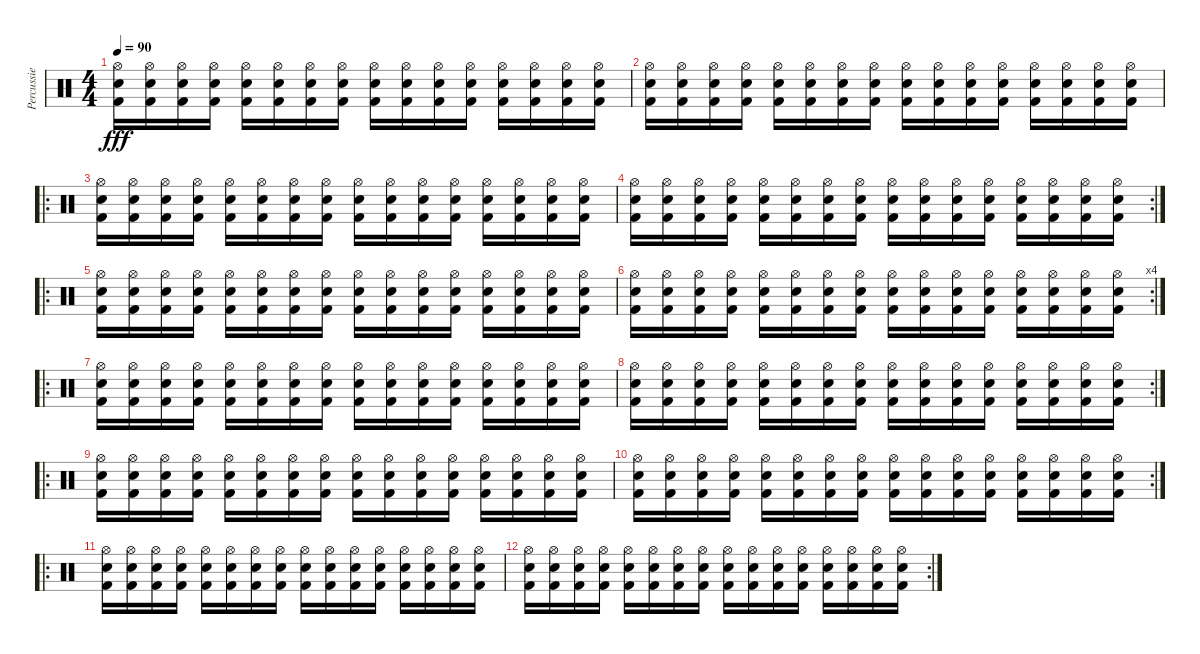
\track ("Percussie" "Percussie") {instrument percussion}
\staff {score}
\articulation defaults
\ts (4 4)
\tempo 90
\clef neutral
\ks c
("Hi-Hat (open)" "Electric Snare (hit)" "Kick (hit) 2").16{dy fff} ("Hi-Hat (open)" "Electric Snare (hit)" "Kick (hit) 2").16 ("Hi-Hat (open)" "Electric Snare (hit)" "Kick (hit) 2").16 ("Hi-Hat (open)" "Electric Snare (hit)" "Kick (hit) 2").16 ("Hi-Hat (open)" "Electric Snare (hit)" "Kick (hit) 2").16 ("Hi-Hat (open)" "Electric Snare (hit)" "Kick (hit) 2").16 ("Hi-Hat (open)" "Electric Snare (hit)" "Kick (hit) 2").16 ("Hi-Hat (open)" "Electric Snare (hit)" "Kick (hit) 2").16 ("Hi-Hat (open)" "Electric Snare (hit)" "Kick (hit) 2").16 ("Hi-Hat (open)" "Electric Snare (hit)" "Kick (hit) 2").16 ("Hi-Hat (open)" "Electric Snare (hit)" "Kick (hit) 2").16 ("Hi-Hat (open)" "Electric Snare (hit)" "Kick (hit) 2").16 ("Hi-Hat (open)" "Electric Snare (hit)" "Kick (hit) 2").16 ("Hi-Hat (open)" "Electric Snare (hit)" "Kick (hit) 2").16 ("Hi-Hat (open)" "Electric Snare (hit)" "Kick (hit) 2").16 ("Hi-Hat (open)" "Electric Snare (hit)" "Kick (hit) 2").16 |
("Hi-Hat (open)" "Electric Snare (hit)" "Kick (hit) 2").16 ("Hi-Hat (open)" "Electric Snare (hit)" "Kick (hit) 2").16 ("Hi-Hat (open)" "Electric Snare (hit)" "Kick (hit) 2").16 ("Hi-Hat (open)" "Electric Snare (hit)" "Kick (hit) 2").16 ("Hi-Hat (open)" "Electric Snare (hit)" "Kick (hit) 2").16 ("Hi-Hat (open)" "Electric Snare (hit)" "Kick (hit) 2").16 ("Hi-Hat (open)" "Electric Snare (hit)" "Kick (hit) 2").16 ("Hi-Hat (open)" "Electric Snare (hit)" "Kick (hit) 2").16 ("Hi-Hat (open)" "Electric Snare (hit)" "Kick (hit) 2").16 ("Hi-Hat (open)" "Electric Snare (hit)" "Kick (hit) 2").16 ("Hi-Hat (open)" "Electric Snare (hit)" "Kick (hit) 2").16 ("Hi-Hat (open)" "Electric Snare (hit)" "Kick (hit) 2").16 ("Hi-Hat (open)" "Electric Snare (hit)" "Kick (hit) 2").16 ("Hi-Hat (open)" "Electric Snare (hit)" "Kick (hit) 2").16 ("Hi-Hat (open)" "Electric Snare (hit)" "Kick (hit) 2").16 ("Hi-Hat (open)" "Electric Snare (hit)" "Kick (hit) 2").16 |
\ro
("Hi-Hat (open)" "Electric Snare (hit)" "Kick (hit) 2").16 ("Hi-Hat (open)" "Electric Snare (hit)" "Kick (hit) 2").16 ("Hi-Hat (open)" "Electric Snare (hit)" "Kick (hit) 2").16 ("Hi-Hat (open)" "Electric Snare (hit)" "Kick (hit) 2").16 ("Hi-Hat (open)" "Electric Snare (hit)" "Kick (hit) 2").16 ("Hi-Hat (open)" "Electric Snare (hit)" "Kick (hit) 2").16 ("Hi-Hat (open)" "Electric Snare (hit)" "Kick (hit) 2").16 ("Hi-Hat (open)" "Electric Snare (hit)" "Kick (hit) 2").16 ("Hi-Hat (open)" "Electric Snare (hit)" "Kick (hit) 2").16 ("Hi-Hat (open)" "Electric Snare (hit)" "Kick (hit) 2").16 ("Hi-Hat (open)" "Electric Snare (hit)" "Kick (hit) 2").16 ("Hi-Hat (open)" "Electric Snare (hit)" "Kick (hit) 2").16 ("Hi-Hat (open)" "Electric Snare (hit)" "Kick (hit) 2").16 ("Hi-Hat (open)" "Electric Snare (hit)" "Kick (hit) 2").16 ("Hi-Hat (open)" "Electric Snare (hit)" "Kick (hit) 2").16 ("Hi-Hat (open)" "Electric Snare (hit)" "Kick (hit) 2").16 |
\rc 2
("Hi-Hat (open)" "Electric Snare (hit)" "Kick (hit) 2").16 ("Hi-Hat (open)" "Electric Snare (hit)" "Kick (hit) 2").16 ("Hi-Hat (open)" "Electric Snare (hit)" "Kick (hit) 2").16 ("Hi-Hat (open)" "Electric Snare (hit)" "Kick (hit) 2").16 ("Hi-Hat (open)" "Electric Snare (hit)" "Kick (hit) 2").16 ("Hi-Hat (open)" "Electric Snare (hit)" "Kick (hit) 2").16 ("Hi-Hat (open)" "Electric Snare (hit)" "Kick (hit) 2").16 ("Hi-Hat (open)" "Electric Snare (hit)" "Kick (hit) 2").16 ("Hi-Hat (open)" "Electric Snare (hit)" "Kick (hit) 2").16 ("Hi-Hat (open)" "Electric Snare (hit)" "Kick (hit) 2").16 ("Hi-Hat (open)" "Electric Snare (hit)" "Kick (hit) 2").16 ("Hi-Hat (open)" "Electric Snare (hit)" "Kick (hit) 2").16 ("Hi-Hat (open)" "Electric Snare (hit)" "Kick (hit) 2").16 ("Hi-Hat (open)" "Electric Snare (hit)" "Kick (hit) 2").16 ("Hi-Hat (open)" "Electric Snare (hit)" "Kick (hit) 2").16 ("Hi-Hat (open)" "Electric Snare (hit)" "Kick (hit) 2").16 |
\ro
("Hi-Hat (open)" "Electric Snare (hit)" "Kick (hit) 2").16 ("Hi-Hat (open)" "Electric Snare (hit)" "Kick (hit) 2").16 ("Hi-Hat (open)" "Electric Snare (hit)" "Kick (hit) 2").16 ("Hi-Hat (open)" "Electric Snare (hit)" "Kick (hit) 2").16 ("Hi-Hat (open)" "Electric Snare (hit)" "Kick (hit) 2").16 ("Hi-Hat (open)" "Electric Snare (hit)" "Kick (hit) 2").16 ("Hi-Hat (open)" "Electric Snare (hit)" "Kick (hit) 2").16 ("Hi-Hat (open)" "Electric Snare (hit)" "Kick (hit) 2").16 ("Hi-Hat (open)" "Electric Snare (hit)" "Kick (hit) 2").16 ("Hi-Hat (open)" "Electric Snare (hit)" "Kick (hit) 2").16 ("Hi-Hat (open)" "Electric Snare (hit)" "Kick (hit) 2").16 ("Hi-Hat (open)" "Electric Snare (hit)" "Kick (hit) 2").16 ("Hi-Hat (open)" "Electric Snare (hit)" "Kick (hit) 2").16 ("Hi-Hat (open)" "Electric Snare (hit)" "Kick (hit) 2").16 ("Hi-Hat (open)" "Electric Snare (hit)" "Kick (hit) 2").16 ("Hi-Hat (open)" "Electric Snare (hit)" "Kick (hit) 2").16 |
\rc 4
("Hi-Hat (open)" "Electric Snare (hit)" "Kick (hit) 2").16 ("Hi-Hat (open)" "Electric Snare (hit)" "Kick (hit) 2").16 ("Hi-Hat (open)" "Electric Snare (hit)" "Kick (hit) 2").16 ("Hi-Hat (open)" "Electric Snare (hit)" "Kick (hit) 2").16 ("Hi-Hat (open)" "Electric Snare (hit)" "Kick (hit) 2").16 ("Hi-Hat (open)" "Electric Snare (hit)" "Kick (hit) 2").16 ("Hi-Hat (open)" "Electric Snare (hit)" "Kick (hit) 2").16 ("Hi-Hat (open)" "Electric Snare (hit)" "Kick (hit) 2").16 ("Hi-Hat (open)" "Electric Snare (hit)" "Kick (hit) 2").16 ("Hi-Hat (open)" "Electric Snare (hit)" "Kick (hit) 2").16 ("Hi-Hat (open)" "Electric Snare (hit)" "Kick (hit) 2").16 ("Hi-Hat (open)" "Electric Snare (hit)" "Kick (hit) 2").16 ("Hi-Hat (open)" "Electric Snare (hit)" "Kick (hit) 2").16 ("Hi-Hat (open)" "Electric Snare (hit)" "Kick (hit) 2").16 ("Hi-Hat (open)" "Electric Snare (hit)" "Kick (hit) 2").16 ("Hi-Hat (open)" "Electric Snare (hit)" "Kick (hit) 2").16 |
\ro
("Hi-Hat (open)" "Electric Snare (hit)" "Kick (hit) 2").16 ("Hi-Hat (open)" "Electric Snare (hit)" "Kick (hit) 2").16 ("Hi-Hat (open)" "Electric Snare (hit)" "Kick (hit) 2").16 ("Hi-Hat (open)" "Electric Snare (hit)" "Kick (hit) 2").16 ("Hi-Hat (open)" "Electric Snare (hit)" "Kick (hit) 2").16 ("Hi-Hat (open)" "Electric Snare (hit)" "Kick (hit) 2").16 ("Hi-Hat (open)" "Electric Snare (hit)" "Kick (hit) 2").16 ("Hi-Hat (open)" "Electric Snare (hit)" "Kick (hit) 2").16 ("Hi-Hat (open)" "Electric Snare (hit)" "Kick (hit) 2").16 ("Hi-Hat (open)" "Electric Snare (hit)" "Kick (hit) 2").16 ("Hi-Hat (open)" "Electric Snare (hit)" "Kick (hit) 2").16 ("Hi-Hat (open)" "Electric Snare (hit)" "Kick (hit) 2").16 ("Hi-Hat (open)" "Electric Snare (hit)" "Kick (hit) 2").16 ("Hi-Hat (open)" "Electric Snare (hit)" "Kick (hit) 2").16 ("Hi-Hat (open)" "Electric Snare (hit)" "Kick (hit) 2").16 ("Hi-Hat (open)" "Electric Snare (hit)" "Kick (hit) 2").16 |
\rc 2
("Hi-Hat (open)" "Electric Snare (hit)" "Kick (hit) 2").16 ("Hi-Hat (open)" "Electric Snare (hit)" "Kick (hit) 2").16 ("Hi-Hat (open)" "Electric Snare (hit)" "Kick (hit) 2").16 ("Hi-Hat (open)" "Electric Snare (hit)" "Kick (hit) 2").16 ("Hi-Hat (open)" "Electric Snare (hit)" "Kick (hit) 2").16 ("Hi-Hat (open)" "Electric Snare (hit)" "Kick (hit) 2").16 ("Hi-Hat (open)" "Electric Snare (hit)" "Kick (hit) 2").16 ("Hi-Hat (open)" "Electric Snare (hit)" "Kick (hit) 2").16 ("Hi-Hat (open)" "Electric Snare (hit)" "Kick (hit) 2").16 ("Hi-Hat (open)" "Electric Snare (hit)" "Kick (hit) 2").16 ("Hi-Hat (open)" "Electric Snare (hit)" "Kick (hit) 2").16 ("Hi-Hat (open)" "Electric Snare (hit)" "Kick (hit) 2").16 ("Hi-Hat (open)" "Electric Snare (hit)" "Kick (hit) 2").16 ("Hi-Hat (open)" "Electric Snare (hit)" "Kick (hit) 2").16 ("Hi-Hat (open)" "Electric Snare (hit)" "Kick (hit) 2").16 ("Hi-Hat (open)" "Electric Snare (hit)" "Kick (hit) 2").16 |
\ro
("Hi-Hat (open)" "Electric Snare (hit)" "Kick (hit) 2").16 ("Hi-Hat (open)" "Electric Snare (hit)" "Kick (hit) 2").16 ("Hi-Hat (open)" "Electric Snare (hit)" "Kick (hit) 2").16 ("Hi-Hat (open)" "Electric Snare (hit)" "Kick (hit) 2").16 ("Hi-Hat (open)" "Electric Snare (hit)" "Kick (hit) 2").16 ("Hi-Hat (open)" "Electric Snare (hit)" "Kick (hit) 2").16 ("Hi-Hat (open)" "Electric Snare (hit)" "Kick (hit) 2").16 ("Hi-Hat (open)" "Electric Snare (hit)" "Kick (hit) 2").16 ("Hi-Hat (open)" "Electric Snare (hit)" "Kick (hit) 2").16 ("Hi-Hat (open)" "Electric Snare (hit)" "Kick (hit) 2").16 ("Hi-Hat (open)" "Electric Snare (hit)" "Kick (hit) 2").16 ("Hi-Hat (open)" "Electric Snare (hit)" "Kick (hit) 2").16 ("Hi-Hat (open)" "Electric Snare (hit)" "Kick (hit) 2").16 ("Hi-Hat (open)" "Electric Snare (hit)" "Kick (hit) 2").16 ("Hi-Hat (open)" "Electric Snare (hit)" "Kick (hit) 2").16 ("Hi-Hat (open)" "Electric Snare (hit)" "Kick (hit) 2").16 |
\rc 2
("Hi-Hat (open)" "Electric Snare (hit)" "Kick (hit) 2").16 ("Hi-Hat (open)" "Electric Snare (hit)" "Kick (hit) 2").16 ("Hi-Hat (open)" "Electric Snare (hit)" "Kick (hit) 2").16 ("Hi-Hat (open)" "Electric Snare (hit)" "Kick (hit) 2").16 ("Hi-Hat (open)" "Electric Snare (hit)" "Kick (hit) 2").16 ("Hi-Hat (open)" "Electric Snare (hit)" "Kick (hit) 2").16 ("Hi-Hat (open)" "Electric Snare (hit)" "Kick (hit) 2").16 ("Hi-Hat (open)" "Electric Snare (hit)" "Kick (hit) 2").16 ("Hi-Hat (open)" "Electric Snare (hit)" "Kick (hit) 2").16 ("Hi-Hat (open)" "Electric Snare (hit)" "Kick (hit) 2").16 ("Hi-Hat (open)" "Electric Snare (hit)" "Kick (hit) 2").16 ("Hi-Hat (open)" "Electric Snare (hit)" "Kick (hit) 2").16 ("Hi-Hat (open)" "Electric Snare (hit)" "Kick (hit) 2").16 ("Hi-Hat (open)" "Electric Snare (hit)" "Kick (hit) 2").16 ("Hi-Hat (open)" "Electric Snare (hit)" "Kick (hit) 2").16 ("Hi-Hat (open)" "Electric Snare (hit)" "Kick (hit) 2").16 |
\ro
("Hi-Hat (open)" "Electric Snare (hit)" "Kick (hit) 2").16 ("Hi-Hat (open)" "Electric Snare (hit)" "Kick (hit) 2").16 ("Hi-Hat (open)" "Electric Snare (hit)" "Kick (hit) 2").16 ("Hi-Hat (open)" "Electric Snare (hit)" "Kick (hit) 2").16 ("Hi-Hat (open)" "Electric Snare (hit)" "Kick (hit) 2").16 ("Hi-Hat (open)" "Electric Snare (hit)" "Kick (hit) 2").16 ("Hi-Hat (open)" "Electric Snare (hit)" "Kick (hit) 2").16 ("Hi-Hat (open)" "Electric Snare (hit)" "Kick (hit) 2").16 ("Hi-Hat (open)" "Electric Snare (hit)" "Kick (hit) 2").16 ("Hi-Hat (open)" "Electric Snare (hit)" "Kick (hit) 2").16 ("Hi-Hat (open)" "Electric Snare (hit)" "Kick (hit) 2").16 ("Hi-Hat (open)" "Electric Snare (hit)" "Kick (hit) 2").16 ("Hi-Hat (open)" "Electric Snare (hit)" "Kick (hit) 2").16 ("Hi-Hat (open)" "Electric Snare (hit)" "Kick (hit) 2").16 ("Hi-Hat (open)" "Electric Snare (hit)" "Kick (hit) 2").16 ("Hi-Hat (open)" "Electric Snare (hit)" "Kick (hit) 2").16 |
\rc 2
("Hi-Hat (open)" "Electric Snare (hit)" "Kick (hit) 2").16 ("Hi-Hat (open)" "Electric Snare (hit)" "Kick (hit) 2").16 ("Hi-Hat (open)" "Electric Snare (hit)" "Kick (hit) 2").16 ("Hi-Hat (open)" "Electric Snare (hit)" "Kick (hit) 2").16 ("Hi-Hat (open)" "Electric Snare (hit)" "Kick (hit) 2").16 ("Hi-Hat (open)" "Electric Snare (hit)" "Kick (hit) 2").16 ("Hi-Hat (open)" "Electric Snare (hit)" "Kick (hit) 2").16 ("Hi-Hat (open)" "Electric Snare (hit)" "Kick (hit) 2").16 ("Hi-Hat (open)" "Electric Snare (hit)" "Kick (hit) 2").16 ("Hi-Hat (open)" "Electric Snare (hit)" "Kick (hit) 2").16 ("Hi-Hat (open)" "Electric Snare (hit)" "Kick (hit) 2").16 ("Hi-Hat (open)" "Electric Snare (hit)" "Kick (hit) 2").16 ("Hi-Hat (open)" "Electric Snare (hit)" "Kick (hit) 2").16 ("Hi-Hat (open)" "Electric Snare (hit)" "Kick (hit) 2").16 ("Hi-Hat (open)" "Electric Snare (hit)" "Kick (hit) 2").16 ("Hi-Hat (open)" "Electric Snare (hit)" "Kick (hit) 2").16
